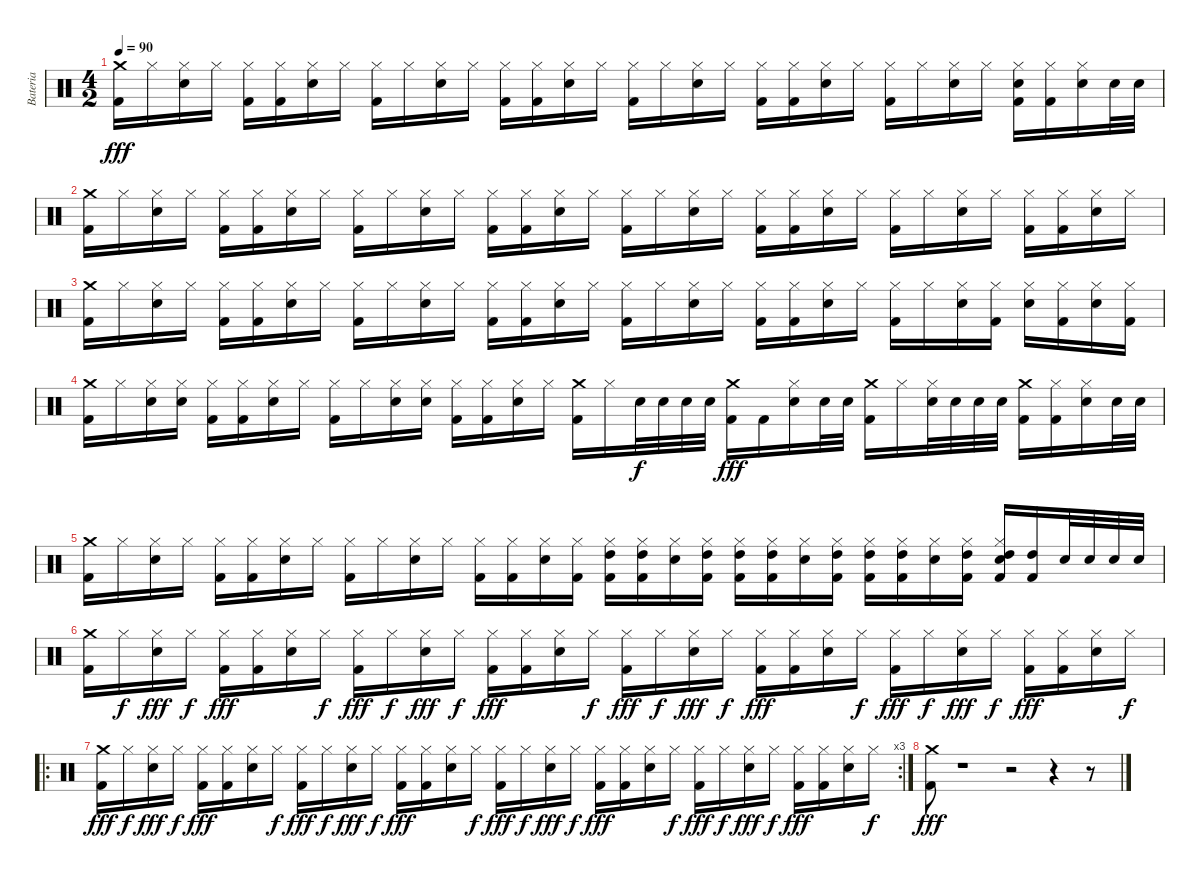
\track ("Bateria" "Bateria") {instrument percussion}
\staff {score}
\articulation defaults
\ts (4 2)
\tempo 90
\clef neutral
\ks c
("Crash medium (hit)" "Kick (hit) 2").16{dy fff} "Hi-Hat (closed)".16 ("Hi-Hat (closed)" "Electric Snare (hit)").16 "Hi-Hat (closed)".16 ("Hi-Hat (closed)" "Kick (hit) 2").16 ("Hi-Hat (closed)" "Kick (hit) 2").16 ("Hi-Hat (closed)" "Electric Snare (hit)").16 "Hi-Hat (closed)".16 ("Hi-Hat (closed)" "Kick (hit) 2").16 "Hi-Hat (closed)".16 ("Hi-Hat (closed)" "Electric Snare (hit)").16 "Hi-Hat (closed)".16 ("Hi-Hat (closed)" "Kick (hit) 2").16 ("Hi-Hat (closed)" "Kick (hit) 2").16 ("Hi-Hat (closed)" "Electric Snare (hit)").16 "Hi-Hat (closed)".16 ("Hi-Hat (closed)" "Kick (hit) 2").16 "Hi-Hat (closed)".16 ("Hi-Hat (closed)" "Electric Snare (hit)").16 "Hi-Hat (closed)".16 ("Hi-Hat (closed)" "Kick (hit) 2").16 ("Hi-Hat (closed)" "Kick (hit) 2").16 ("Hi-Hat (closed)" "Electric Snare (hit)").16 "Hi-Hat (closed)".16 ("Hi-Hat (closed)" "Kick (hit) 2").16 "Hi-Hat (closed)".16 ("Hi-Hat (closed)" "Electric Snare (hit)").16 "Hi-Hat (closed)".16 ("Hi-Hat (closed)" "Electric Snare (hit)" "Kick (hit) 2").16 ("Hi-Hat (closed)" "Kick (hit) 2").16 ("Hi-Hat (closed)" "Electric Snare (hit)").16 "Electric Snare (hit)".32 "Electric Snare (hit)".32 |
("Crash medium (hit)" "Kick (hit) 2").16 "Hi-Hat (closed)".16 ("Hi-Hat (closed)" "Electric Snare (hit)").16 "Hi-Hat (closed)".16 ("Hi-Hat (closed)" "Kick (hit) 2").16 ("Hi-Hat (closed)" "Kick (hit) 2").16 ("Hi-Hat (closed)" "Electric Snare (hit)").16 "Hi-Hat (closed)".16 ("Hi-Hat (closed)" "Kick (hit) 2").16 "Hi-Hat (closed)".16 ("Hi-Hat (closed)" "Electric Snare (hit)").16 "Hi-Hat (closed)".16 ("Hi-Hat (closed)" "Kick (hit) 2").16 ("Hi-Hat (closed)" "Kick (hit) 2").16 ("Hi-Hat (closed)" "Electric Snare (hit)").16 "Hi-Hat (closed)".16 ("Hi-Hat (closed)" "Kick (hit) 2").16 "Hi-Hat (closed)".16 ("Hi-Hat (closed)" "Electric Snare (hit)").16 "Hi-Hat (closed)".16 ("Hi-Hat (closed)" "Kick (hit) 2").16 ("Hi-Hat (closed)" "Kick (hit) 2").16 ("Hi-Hat (closed)" "Electric Snare (hit)").16 "Hi-Hat (closed)".16 ("Hi-Hat (closed)" "Kick (hit) 2").16 "Hi-Hat (closed)".16 ("Hi-Hat (closed)" "Electric Snare (hit)").16 "Hi-Hat (closed)".16 ("Hi-Hat (closed)" "Kick (hit) 2").16 ("Hi-Hat (closed)" "Kick (hit) 2").16 ("Hi-Hat (closed)" "Electric Snare (hit)").16 "Hi-Hat (closed)".16 |
("Crash medium (hit)" "Kick (hit) 2").16 "Hi-Hat (closed)".16 ("Hi-Hat (closed)" "Electric Snare (hit)").16 "Hi-Hat (closed)".16 ("Hi-Hat (closed)" "Kick (hit) 2").16 ("Hi-Hat (closed)" "Kick (hit) 2").16 ("Hi-Hat (closed)" "Electric Snare (hit)").16 "Hi-Hat (closed)".16 ("Hi-Hat (closed)" "Kick (hit) 2").16 "Hi-Hat (closed)".16 ("Hi-Hat (closed)" "Electric Snare (hit)").16 "Hi-Hat (closed)".16 ("Hi-Hat (closed)" "Kick (hit) 2").16 ("Hi-Hat (closed)" "Kick (hit) 2").16 ("Hi-Hat (closed)" "Electric Snare (hit)").16 "Hi-Hat (closed)".16 ("Hi-Hat (closed)" "Kick (hit) 2").16 "Hi-Hat (closed)".16 ("Hi-Hat (closed)" "Electric Snare (hit)").16 "Hi-Hat (closed)".16 ("Hi-Hat (closed)" "Kick (hit) 2").16 ("Hi-Hat (closed)" "Kick (hit) 2").16 ("Hi-Hat (closed)" "Electric Snare (hit)").16 "Hi-Hat (closed)".16 ("Hi-Hat (closed)" "Kick (hit) 2").16 "Hi-Hat (closed)".16 ("Hi-Hat (closed)" "Electric Snare (hit)").16 ("Hi-Hat (closed)" "Kick (hit) 2").16 ("Hi-Hat (closed)" "Electric Snare (hit)").16 ("Hi-Hat (closed)" "Kick (hit) 2").16 ("Hi-Hat (closed)" "Electric Snare (hit)").16 ("Hi-Hat (closed)" "Kick (hit) 2").16 |
("Crash medium (hit)" "Kick (hit) 2").16 "Hi-Hat (closed)".16 ("Hi-Hat (closed)" "Electric Snare (hit)").16 ("Hi-Hat (closed)" "Electric Snare (hit)").16 ("Hi-Hat (closed)" "Kick (hit) 2").16 ("Hi-Hat (closed)" "Kick (hit) 2").16 ("Hi-Hat (closed)" "Electric Snare (hit)").16 "Hi-Hat (closed)".16 ("Hi-Hat (closed)" "Kick (hit) 2").16 "Hi-Hat (closed)".16 ("Hi-Hat (closed)" "Electric Snare (hit)").16 ("Hi-Hat (closed)" "Electric Snare (hit)").16 ("Hi-Hat (closed)" "Kick (hit) 2").16 ("Hi-Hat (closed)" "Kick (hit) 2").16 ("Hi-Hat (closed)" "Electric Snare (hit)").16 "Hi-Hat (closed)".16 ("Crash medium (hit)" "Kick (hit) 2").16 "Hi-Hat (closed)".16 "Electric Snare (hit)".32{dy f} "Electric Snare (hit)".32 "Electric Snare (hit)".32 "Electric Snare (hit)".32 ("Crash medium (hit)" "Kick (hit) 2").16{dy fff} "Kick (hit) 2".16 ("Hi-Hat (closed)" "Electric Snare (hit)").16 "Electric Snare (hit)".32 "Electric Snare (hit)".32 ("Crash medium (hit)" "Kick (hit) 2").16 "Hi-Hat (closed)".16 ("Hi-Hat (closed)" "Electric Snare (hit)").32 "Electric Snare (hit)".32 "Electric Snare (hit)".32 "Electric Snare (hit)".32 ("Crash medium (hit)" "Kick (hit) 2").16 ("Hi-Hat (closed)" "Kick (hit) 2").16 ("Hi-Hat (closed)" "Electric Snare (hit)").16 "Electric Snare (hit)".32 "Electric Snare (hit)".32 |
("Crash medium (hit)" "Kick (hit) 2").16 "Hi-Hat (closed)".16 ("Hi-Hat (closed)" "Electric Snare (hit)").16 "Hi-Hat (closed)".16 ("Hi-Hat (closed)" "Kick (hit) 2").16 ("Hi-Hat (closed)" "Kick (hit) 2").16 ("Hi-Hat (closed)" "Electric Snare (hit)").16 "Hi-Hat (closed)".16 ("Hi-Hat (closed)" "Kick (hit) 2").16 "Hi-Hat (closed)".16 ("Hi-Hat (closed)" "Electric Snare (hit)").16 "Hi-Hat (closed)".16 ("Hi-Hat (closed)" "Kick (hit) 2").16 ("Hi-Hat (closed)" "Kick (hit) 2").16 ("Hi-Hat (closed)" "Electric Snare (hit)").16 ("Hi-Hat (closed)" "Kick (hit) 2").16 ("Hi-Hat (closed)" "High Tom (hit)" "Kick (hit) 2").16 ("Hi-Hat (closed)" "High Tom (hit)" "Kick (hit) 2").16 ("Hi-Hat (closed)" "Electric Snare (hit)").16 ("Hi-Hat (closed)" "High Tom (hit)" "Kick (hit) 2").16 ("Hi-Hat (closed)" "High Tom (hit)" "Kick (hit) 2").16 ("Hi-Hat (closed)" "High Tom (hit)" "Kick (hit) 2").16 ("Hi-Hat (closed)" "Electric Snare (hit)").16 ("Hi-Hat (closed)" "High Tom (hit)" "Kick (hit) 2").16 ("Hi-Hat (closed)" "High Tom (hit)" "Kick (hit) 2").16 ("Hi-Hat (closed)" "High Tom (hit)" "Kick (hit) 2").16 ("Hi-Hat (closed)" "Electric Snare (hit)").16 ("Hi-Hat (closed)" "High Tom (hit)" "Kick (hit) 2").16 ("Hi-Hat (closed)" "Electric Snare (hit)" "High Tom (hit)" "Kick (hit) 2").16 ("High Tom (hit)" "Kick (hit) 2").16 "Electric Snare (hit)".32 "Electric Snare (hit)".32 "Electric Snare (hit)".32 "Electric Snare (hit)".32 |
("Crash medium (hit)" "Kick (hit) 2").16 "Hi-Hat (closed)".16{dy f} ("Hi-Hat (closed)" "Electric Snare (hit)").16{dy fff} "Hi-Hat (closed)".16{dy f} ("Hi-Hat (closed)" "Kick (hit) 2").16{dy fff} ("Hi-Hat (closed)" "Kick (hit) 2").16 ("Hi-Hat (closed)" "Electric Snare (hit)").16 "Hi-Hat (closed)".16{dy f} ("Hi-Hat (closed)" "Kick (hit) 2").16{dy fff} "Hi-Hat (closed)".16{dy f} ("Hi-Hat (closed)" "Electric Snare (hit)").16{dy fff} "Hi-Hat (closed)".16{dy f} ("Hi-Hat (closed)" "Kick (hit) 2").16{dy fff} ("Hi-Hat (closed)" "Kick (hit) 2").16 ("Hi-Hat (closed)" "Electric Snare (hit)").16 "Hi-Hat (closed)".16{dy f} ("Hi-Hat (closed)" "Kick (hit) 2").16{dy fff} "Hi-Hat (closed)".16{dy f} ("Hi-Hat (closed)" "Electric Snare (hit)").16{dy fff} "Hi-Hat (closed)".16{dy f} ("Hi-Hat (closed)" "Kick (hit) 2").16{dy fff} ("Hi-Hat (closed)" "Kick (hit) 2").16 ("Hi-Hat (closed)" "Electric Snare (hit)").16 "Hi-Hat (closed)".16{dy f} ("Hi-Hat (closed)" "Kick (hit) 2").16{dy fff} "Hi-Hat (closed)".16{dy f} ("Hi-Hat (closed)" "Electric Snare (hit)").16{dy fff} "Hi-Hat (closed)".16{dy f} ("Hi-Hat (closed)" "Kick (hit) 2").16{dy fff} ("Hi-Hat (closed)" "Kick (hit) 2").16 ("Hi-Hat (closed)" "Electric Snare (hit)").16 "Hi-Hat (closed)".16{dy f} |
\ro
\rc 3
("Crash medium (hit)" "Kick (hit) 2").16{dy fff} "Hi-Hat (closed)".16{dy f} ("Hi-Hat (closed)" "Electric Snare (hit)").16{dy fff} "Hi-Hat (closed)".16{dy f} ("Hi-Hat (closed)" "Kick (hit) 2").16{dy fff} ("Hi-Hat (closed)" "Kick (hit) 2").16 ("Hi-Hat (closed)" "Electric Snare (hit)").16 "Hi-Hat (closed)".16{dy f} ("Hi-Hat (closed)" "Kick (hit) 2").16{dy fff} "Hi-Hat (closed)".16{dy f} ("Hi-Hat (closed)" "Electric Snare (hit)").16{dy fff} "Hi-Hat (closed)".16{dy f} ("Hi-Hat (closed)" "Kick (hit) 2").16{dy fff} ("Hi-Hat (closed)" "Kick (hit) 2").16 ("Hi-Hat (closed)" "Electric Snare (hit)").16 "Hi-Hat (closed)".16{dy f} ("Hi-Hat (closed)" "Kick (hit) 2").16{dy fff} "Hi-Hat (closed)".16{dy f} ("Hi-Hat (closed)" "Electric Snare (hit)").16{dy fff} "Hi-Hat (closed)".16{dy f} ("Hi-Hat (closed)" "Kick (hit) 2").16{dy fff} ("Hi-Hat (closed)" "Kick (hit) 2").16 ("Hi-Hat (closed)" "Electric Snare (hit)").16 "Hi-Hat (closed)".16{dy f} ("Hi-Hat (closed)" "Kick (hit) 2").16{dy fff} "Hi-Hat (closed)".16{dy f} ("Hi-Hat (closed)" "Electric Snare (hit)").16{dy fff} "Hi-Hat (closed)".16{dy f} ("Hi-Hat (closed)" "Kick (hit) 2").16{dy fff} ("Hi-Hat (closed)" "Kick (hit) 2").16 ("Hi-Hat (closed)" "Electric Snare (hit)").16 "Hi-Hat (closed)".16{dy f} |
("Crash medium (hit)" "Kick (hit) 2").8{dy fff} r.1 r.2 r.4 r.8
